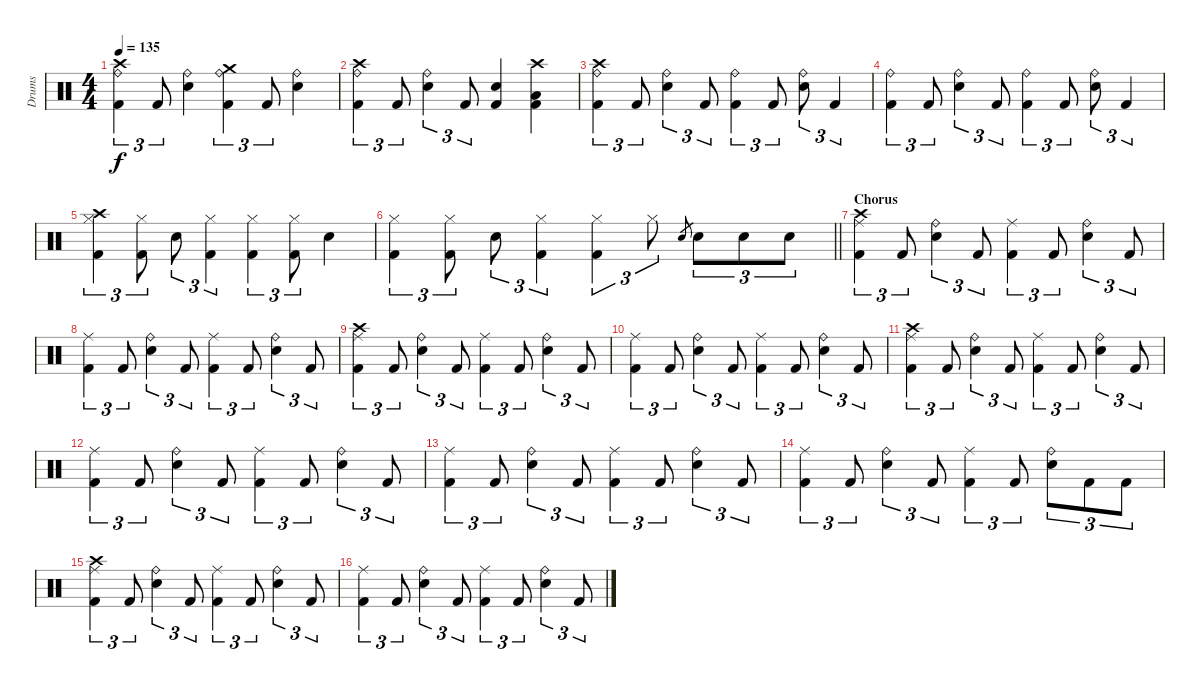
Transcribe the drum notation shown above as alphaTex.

\track ("Drums" "Drums") {instrument percussion}
\staff {score}
\articulation defaults
\ts (4 4)
\tempo 135
\clef neutral
\ks c
("Crash high (hit)" "Ride (bell)" "Kick (hit) 2").4{tu (3 2) dy f} "Kick (hit) 2".8{tu (3 2)} ("Ride (bell)" "Snare (hit) 2").4 ("Crash medium (hit)" "Ride (bell)" "Kick (hit) 2").4{tu (3 2)} "Kick (hit) 2".8{tu (3 2)} ("Ride (bell)" "Snare (hit) 2").4 |
("Crash high (hit)" "Ride (bell)" "Kick (hit) 2").4{tu (3 2)} "Kick (hit) 2".8{tu (3 2)} ("Ride (bell)" "Snare (hit) 2").4{tu (3 2)} "Kick (hit) 2".8{tu (3 2)} ("Snare (hit) 2" "Kick (hit) 2").4 ("Crash high (hit)" "Low Tom (hit)" "Kick (hit) 2").4 |
("Crash high (hit)" "Ride (bell)" "Kick (hit) 2").4{tu (3 2)} "Kick (hit) 2".8{tu (3 2)} ("Ride (bell)" "Snare (hit) 2").4{tu (3 2)} "Kick (hit) 2".8{tu (3 2)} ("Ride (bell)" "Kick (hit) 2").4{tu (3 2)} "Kick (hit) 2".8{tu (3 2)} ("Ride (bell)" "Snare (hit) 2").8{tu (3 2)} "Kick (hit) 2".4{tu (3 2)} |
("Ride (bell)" "Kick (hit) 2").4{tu (3 2)} "Kick (hit) 2".8{tu (3 2)} ("Ride (bell)" "Snare (hit) 2").4{tu (3 2)} "Kick (hit) 2".8{tu (3 2)} ("Ride (bell)" "Kick (hit) 2").4{tu (3 2)} "Kick (hit) 2".8{tu (3 2)} ("Ride (bell)" "Snare (hit) 2").8{tu (3 2)} "Kick (hit) 2".4{tu (3 2)} |
("Crash high (hit)" "Hi-Hat (closed)" "Kick (hit) 2").4{tu (3 2)} ("Hi-Hat (closed)" "Kick (hit) 2").8{tu (3 2)} "Snare (hit) 2".8{tu (3 2)} ("Hi-Hat (closed)" "Kick (hit) 2").4{tu (3 2)} ("Hi-Hat (closed)" "Kick (hit) 2").4{tu (3 2)} ("Hi-Hat (closed)" "Kick (hit) 2").8{tu (3 2)} "Snare (hit) 2".4 |
\barLineRight lightlight
("Hi-Hat (closed)" "Kick (hit) 2").4{tu (3 2)} ("Hi-Hat (closed)" "Kick (hit) 2").8{tu (3 2)} "Snare (hit) 2".8{tu (3 2)} ("Hi-Hat (closed)" "Kick (hit) 2").4{tu (3 2)} ("Hi-Hat (closed)" "Kick (hit) 2").4{tu (3 2)} "Hi-Hat (closed)".8{tu (3 2)} "Snare (hit) 2".8{gr} "Snare (hit) 2".8{tu (3 2)} "Snare (hit) 2".8{tu (3 2)} "Snare (hit) 2".8{tu (3 2)} |
\section ("" "Chorus")
("Crash high (hit)" "Ride (middle)" "Kick (hit) 2").4{tu (3 2)} "Kick (hit) 2".8{tu (3 2)} ("Ride (bell)" "Snare (hit) 2").4{tu (3 2)} "Kick (hit) 2".8{tu (3 2)} ("Ride (middle)" "Kick (hit) 2").4{tu (3 2)} "Kick (hit) 2".8{tu (3 2)} ("Ride (bell)" "Snare (hit) 2").4{tu (3 2)} "Kick (hit) 2".8{tu (3 2)} |
("Ride (middle)" "Kick (hit) 2").4{tu (3 2)} "Kick (hit) 2".8{tu (3 2)} ("Ride (bell)" "Snare (hit) 2").4{tu (3 2)} "Kick (hit) 2".8{tu (3 2)} ("Ride (middle)" "Kick (hit) 2").4{tu (3 2)} "Kick (hit) 2".8{tu (3 2)} ("Ride (bell)" "Snare (hit) 2").4{tu (3 2)} "Kick (hit) 2".8{tu (3 2)} |
("Crash high (hit)" "Ride (middle)" "Kick (hit) 2").4{tu (3 2)} "Kick (hit) 2".8{tu (3 2)} ("Ride (bell)" "Snare (hit) 2").4{tu (3 2)} "Kick (hit) 2".8{tu (3 2)} ("Ride (middle)" "Kick (hit) 2").4{tu (3 2)} "Kick (hit) 2".8{tu (3 2)} ("Ride (bell)" "Snare (hit) 2").4{tu (3 2)} "Kick (hit) 2".8{tu (3 2)} |
("Ride (middle)" "Kick (hit) 2").4{tu (3 2)} "Kick (hit) 2".8{tu (3 2)} ("Ride (bell)" "Snare (hit) 2").4{tu (3 2)} "Kick (hit) 2".8{tu (3 2)} ("Ride (middle)" "Kick (hit) 2").4{tu (3 2)} "Kick (hit) 2".8{tu (3 2)} ("Ride (bell)" "Snare (hit) 2").4{tu (3 2)} "Kick (hit) 2".8{tu (3 2)} |
("Crash high (hit)" "Ride (middle)" "Kick (hit) 2").4{tu (3 2)} "Kick (hit) 2".8{tu (3 2)} ("Ride (bell)" "Snare (hit) 2").4{tu (3 2)} "Kick (hit) 2".8{tu (3 2)} ("Ride (middle)" "Kick (hit) 2").4{tu (3 2)} "Kick (hit) 2".8{tu (3 2)} ("Ride (bell)" "Snare (hit) 2").4{tu (3 2)} "Kick (hit) 2".8{tu (3 2)} |
("Ride (middle)" "Kick (hit) 2").4{tu (3 2)} "Kick (hit) 2".8{tu (3 2)} ("Ride (bell)" "Snare (hit) 2").4{tu (3 2)} "Kick (hit) 2".8{tu (3 2)} ("Ride (middle)" "Kick (hit) 2").4{tu (3 2)} "Kick (hit) 2".8{tu (3 2)} ("Ride (bell)" "Snare (hit) 2").4{tu (3 2)} "Kick (hit) 2".8{tu (3 2)} |
("Ride (middle)" "Kick (hit) 2").4{tu (3 2)} "Kick (hit) 2".8{tu (3 2)} ("Ride (bell)" "Snare (hit) 2").4{tu (3 2)} "Kick (hit) 2".8{tu (3 2)} ("Ride (middle)" "Kick (hit) 2").4{tu (3 2)} "Kick (hit) 2".8{tu (3 2)} ("Ride (bell)" "Snare (hit) 2").4{tu (3 2)} "Kick (hit) 2".8{tu (3 2)} |
("Ride (middle)" "Kick (hit) 2").4{tu (3 2)} "Kick (hit) 2".8{tu (3 2)} ("Ride (bell)" "Snare (hit) 2").4{tu (3 2)} "Kick (hit) 2".8{tu (3 2)} ("Ride (middle)" "Kick (hit) 2").4{tu (3 2)} "Kick (hit) 2".8{tu (3 2)} ("Ride (bell)" "Snare (hit) 2").8{tu (3 2)} "Kick (hit) 2".8{tu (3 2)} "Kick (hit) 2".8{tu (3 2)} |
("Crash high (hit)" "Ride (middle)" "Kick (hit) 2").4{tu (3 2)} "Kick (hit) 2".8{tu (3 2)} ("Ride (bell)" "Snare (hit) 2").4{tu (3 2)} "Kick (hit) 2".8{tu (3 2)} ("Ride (middle)" "Kick (hit) 2").4{tu (3 2)} "Kick (hit) 2".8{tu (3 2)} ("Ride (bell)" "Snare (hit) 2").4{tu (3 2)} "Kick (hit) 2".8{tu (3 2)} |
("Ride (middle)" "Kick (hit) 2").4{tu (3 2)} "Kick (hit) 2".8{tu (3 2)} ("Ride (bell)" "Snare (hit) 2").4{tu (3 2)} "Kick (hit) 2".8{tu (3 2)} ("Ride (middle)" "Kick (hit) 2").4{tu (3 2)} "Kick (hit) 2".8{tu (3 2)} ("Ride (bell)" "Snare (hit) 2").4{tu (3 2)} "Kick (hit) 2".8{tu (3 2)}
